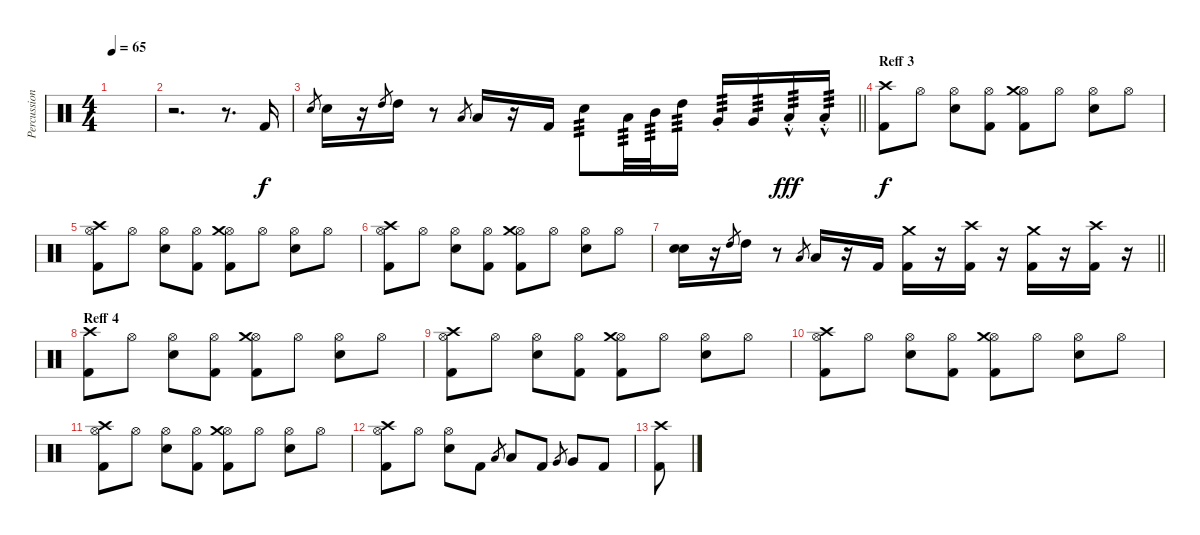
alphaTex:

\track ("Percussion" "Percussion") {instrument percussion}
\staff {score}
\articulation defaults
\ts (4 4)
\tempo 65
\clef neutral
\ks c
|
r.2{d} r.8{d} "Kick (hit) 2".16 |
\barLineRight lightlight "Electric Snare (hit)".8{gr} "Electric Snare (hit)".16
r.16 "High Tom (hit)".8{gr} "High Tom (hit)".16 r.8 "Low Tom (hit)".8{gr} "Low Tom (hit)".16 r.16 "Kick (hit) 2".16 "Electric Snare (hit)".8{tp 3} "Low Tom (hit)".32{tp 3} "Mid Tom (hit)".32{tp 3} "High Tom (hit)".16{tp 3} "Very Low Tom (hit)"{st}.16{tp 3} "Very Low Tom (hit)".16{tp 3} "Low Floor Tom (hit)"{hac st}.16{tp 3 dy fff} "Low Floor Tom (hit)"{hac st}.16{tp 3} |
\section ("" "Reff 3")
("Crash high (hit)" "Kick (hit) 2").8{dy f} "Hi-Hat (open)".8 ("Hi-Hat (open)" "Electric Snare (hit)").8 ("Hi-Hat (open)" "Kick (hit) 2").8 ("Hi-Hat (open)" "Crash medium (hit)" "Kick (hit) 2").8 "Hi-Hat (open)".8 ("Hi-Hat (open)" "Electric Snare (hit)").8 "Hi-Hat (open)".8 |
("Hi-Hat (open)" "Crash high (hit)" "Kick (hit) 2").8 "Hi-Hat (open)".8 ("Hi-Hat (open)" "Electric Snare (hit)").8 ("Hi-Hat (open)" "Kick (hit) 2").8 ("Hi-Hat (open)" "Crash medium (hit)" "Kick (hit) 2").8 "Hi-Hat (open)".8 ("Hi-Hat (open)" "Electric Snare (hit)").8 "Hi-Hat (open)".8 |
("Hi-Hat (open)" "Crash high (hit)" "Kick (hit) 2").8 "Hi-Hat (open)".8 ("Hi-Hat (open)" "Electric Snare (hit)").8 ("Hi-Hat (open)" "Kick (hit) 2").8 ("Hi-Hat (open)" "Crash medium (hit)" "Kick (hit) 2").8 "Hi-Hat (open)".8 ("Hi-Hat (open)" "Electric Snare (hit)").8 "Hi-Hat (open)".8 |
\barLineRight lightlight
("Electric Snare (hit)" "Electric Snare (hit)").16{bd 120} r.16 "High Tom (hit)".8{gr} "High Tom (hit)".16 r.8 "Low Tom (hit)".8{gr} "Low Tom (hit)".16 r.16 "Kick (hit) 2".16 ("Crash medium (hit)" "Kick (hit) 2").16 r.16 ("Crash high (hit)" "Kick (hit) 2").16 r.16 ("Crash medium (hit)" "Kick (hit) 2").16 r.16 ("Crash high (hit)" "Kick (hit) 2").16 r.16 |
\section ("" "Reff 4")
("Crash high (hit)" "Kick (hit) 2").8 "Hi-Hat (open)".8 ("Hi-Hat (open)" "Electric Snare (hit)").8 ("Hi-Hat (open)" "Kick (hit) 2").8 ("Hi-Hat (open)" "Crash medium (hit)" "Kick (hit) 2").8 "Hi-Hat (open)".8 ("Hi-Hat (open)" "Electric Snare (hit)").8 "Hi-Hat (open)".8 |
("Hi-Hat (open)" "Crash high (hit)" "Kick (hit) 2").8 "Hi-Hat (open)".8 ("Hi-Hat (open)" "Electric Snare (hit)").8 ("Hi-Hat (open)" "Kick (hit) 2").8 ("Hi-Hat (open)" "Crash medium (hit)" "Kick (hit) 2").8 "Hi-Hat (open)".8 ("Hi-Hat (open)" "Electric Snare (hit)").8 "Hi-Hat (open)".8 |
("Hi-Hat (open)" "Crash high (hit)" "Kick (hit) 2").8 "Hi-Hat (open)".8 ("Hi-Hat (open)" "Electric Snare (hit)").8 ("Hi-Hat (open)" "Kick (hit) 2").8 ("Hi-Hat (open)" "Crash medium (hit)" "Kick (hit) 2").8 "Hi-Hat (open)".8 ("Hi-Hat (open)" "Electric Snare (hit)").8 "Hi-Hat (open)".8 |
("Hi-Hat (open)" "Crash high (hit)" "Kick (hit) 2").8 "Hi-Hat (open)".8 ("Hi-Hat (open)" "Electric Snare (hit)").8 ("Hi-Hat (open)" "Kick (hit) 2").8 ("Hi-Hat (open)" "Crash medium (hit)" "Kick (hit) 2").8 "Hi-Hat (open)".8 ("Hi-Hat (open)" "Electric Snare (hit)").8 "Hi-Hat (open)".8 |
("Hi-Hat (open)" "Crash high (hit)" "Kick (hit) 2").8 "Hi-Hat (open)".8 ("Hi-Hat (open)" "Electric Snare (hit)").8 "Kick (hit) 2".8 "Low Tom (hit)".8{gr} "Low Tom (hit)".8 "Kick (hit) 2".8 "Very Low Tom (hit)".8{gr} "Very Low Tom (hit)".8 "Kick (hit) 2".8 |
("Crash high (hit)" "Kick (hit) 2").8
